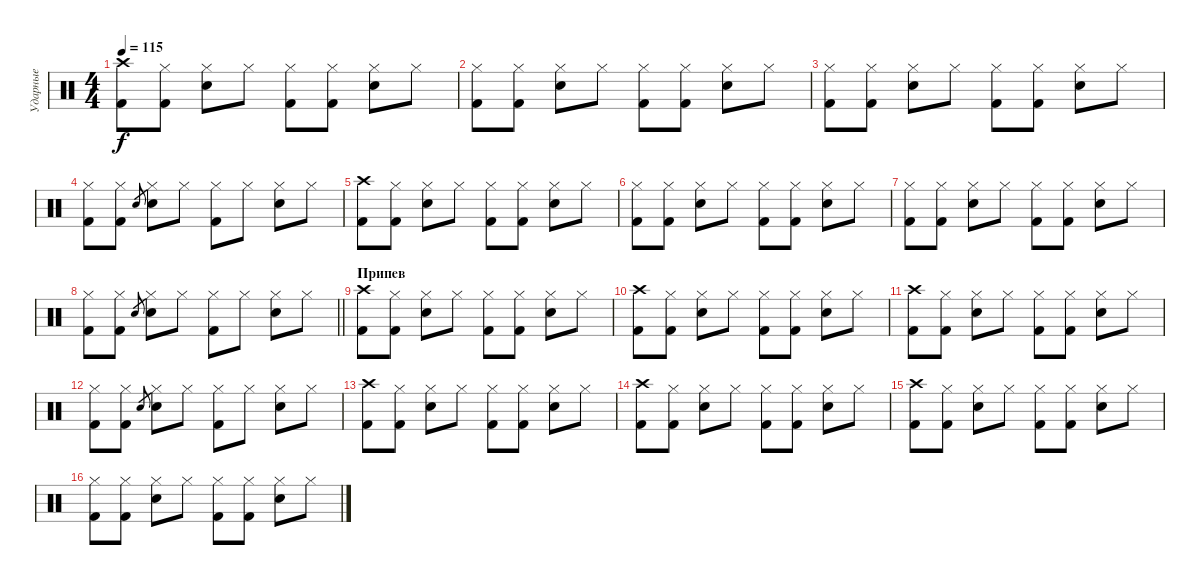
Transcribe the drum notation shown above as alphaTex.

\track ("Ударные" "Ударные") {instrument percussion}
\staff {score}
\articulation defaults
\ts (4 4)
\tempo 115
\clef neutral
\ks c
("Crash high (hit)" "Kick (hit) 2").8{dy f} ("Hi-Hat (closed)" "Kick (hit) 2").8 ("Hi-Hat (closed)" "Snare (hit) 2").8 "Hi-Hat (closed)".8 ("Hi-Hat (closed)" "Kick (hit) 2").8 ("Hi-Hat (closed)" "Kick (hit) 2").8 ("Hi-Hat (closed)" "Snare (hit) 2").8 "Hi-Hat (closed)".8 |
("Hi-Hat (closed)" "Kick (hit) 2").8 ("Hi-Hat (closed)" "Kick (hit) 2").8 ("Hi-Hat (closed)" "Snare (hit) 2").8 "Hi-Hat (closed)".8 ("Hi-Hat (closed)" "Kick (hit) 2").8 ("Hi-Hat (closed)" "Kick (hit) 2").8 ("Hi-Hat (closed)" "Snare (hit) 2").8 "Hi-Hat (closed)".8 |
("Hi-Hat (closed)" "Kick (hit) 2").8 ("Hi-Hat (closed)" "Kick (hit) 2").8 ("Hi-Hat (closed)" "Snare (hit) 2").8 "Hi-Hat (closed)".8 ("Hi-Hat (closed)" "Kick (hit) 2").8 ("Hi-Hat (closed)" "Kick (hit) 2").8 ("Hi-Hat (closed)" "Snare (hit) 2").8 "Hi-Hat (closed)".8 |
("Hi-Hat (closed)" "Kick (hit) 2").8 ("Hi-Hat (closed)" "Kick (hit) 2").8 "Snare (hit) 2".8{gr} ("Hi-Hat (closed)" "Snare (hit) 2").8 "Hi-Hat (closed)".8 ("Hi-Hat (closed)" "Kick (hit) 2").8 "Hi-Hat (closed)".8 ("Hi-Hat (closed)" "Snare (hit) 2").8 "Hi-Hat (closed)".8 |
("Crash high (hit)" "Kick (hit) 2").8 ("Hi-Hat (closed)" "Kick (hit) 2").8 ("Hi-Hat (closed)" "Snare (hit) 2").8 "Hi-Hat (closed)".8 ("Hi-Hat (closed)" "Kick (hit) 2").8 ("Hi-Hat (closed)" "Kick (hit) 2").8 ("Hi-Hat (closed)" "Snare (hit) 2").8 "Hi-Hat (closed)".8 |
("Hi-Hat (closed)" "Kick (hit) 2").8 ("Hi-Hat (closed)" "Kick (hit) 2").8 ("Hi-Hat (closed)" "Snare (hit) 2").8 "Hi-Hat (closed)".8 ("Hi-Hat (closed)" "Kick (hit) 2").8 ("Hi-Hat (closed)" "Kick (hit) 2").8 ("Hi-Hat (closed)" "Snare (hit) 2").8 "Hi-Hat (closed)".8 |
("Hi-Hat (closed)" "Kick (hit) 2").8 ("Hi-Hat (closed)" "Kick (hit) 2").8 ("Hi-Hat (closed)" "Snare (hit) 2").8 "Hi-Hat (closed)".8 ("Hi-Hat (closed)" "Kick (hit) 2").8 ("Hi-Hat (closed)" "Kick (hit) 2").8 ("Hi-Hat (closed)" "Snare (hit) 2").8 "Hi-Hat (closed)".8 |
\barLineRight lightlight
("Hi-Hat (closed)" "Kick (hit) 2").8 ("Hi-Hat (closed)" "Kick (hit) 2").8 "Snare (hit) 2".8{gr} ("Hi-Hat (closed)" "Snare (hit) 2").8 "Hi-Hat (closed)".8 ("Hi-Hat (closed)" "Kick (hit) 2").8 "Hi-Hat (closed)".8 ("Hi-Hat (closed)" "Snare (hit) 2").8 "Hi-Hat (closed)".8 |
\section ("" "Припев")
("Crash high (hit)" "Kick (hit) 2").8 ("Hi-Hat (closed)" "Kick (hit) 2").8 ("Hi-Hat (closed)" "Snare (hit) 2").8 "Hi-Hat (closed)".8 ("Hi-Hat (closed)" "Kick (hit) 2").8 ("Hi-Hat (closed)" "Kick (hit) 2").8 ("Hi-Hat (closed)" "Snare (hit) 2").8 "Hi-Hat (closed)".8 |
("Crash high (hit)" "Kick (hit) 2").8 ("Hi-Hat (closed)" "Kick (hit) 2").8 ("Hi-Hat (closed)" "Snare (hit) 2").8 "Hi-Hat (closed)".8 ("Hi-Hat (closed)" "Kick (hit) 2").8 ("Hi-Hat (closed)" "Kick (hit) 2").8 ("Hi-Hat (closed)" "Snare (hit) 2").8 "Hi-Hat (closed)".8 |
("Crash high (hit)" "Kick (hit) 2").8 ("Hi-Hat (closed)" "Kick (hit) 2").8 ("Hi-Hat (closed)" "Snare (hit) 2").8 "Hi-Hat (closed)".8 ("Hi-Hat (closed)" "Kick (hit) 2").8 ("Hi-Hat (closed)" "Kick (hit) 2").8 ("Hi-Hat (closed)" "Snare (hit) 2").8 "Hi-Hat (closed)".8 |
("Hi-Hat (closed)" "Kick (hit) 2").8 ("Hi-Hat (closed)" "Kick (hit) 2").8 "Snare (hit) 2".8{gr} ("Hi-Hat (closed)" "Snare (hit) 2").8 "Hi-Hat (closed)".8 ("Hi-Hat (closed)" "Kick (hit) 2").8 "Hi-Hat (closed)".8 ("Hi-Hat (closed)" "Snare (hit) 2").8 "Hi-Hat (closed)".8 |
("Crash high (hit)" "Kick (hit) 2").8 ("Hi-Hat (closed)" "Kick (hit) 2").8 ("Hi-Hat (closed)" "Snare (hit) 2").8 "Hi-Hat (closed)".8 ("Hi-Hat (closed)" "Kick (hit) 2").8 ("Hi-Hat (closed)" "Kick (hit) 2").8 ("Hi-Hat (closed)" "Snare (hit) 2").8 "Hi-Hat (closed)".8 |
("Crash high (hit)" "Kick (hit) 2").8 ("Hi-Hat (closed)" "Kick (hit) 2").8 ("Hi-Hat (closed)" "Snare (hit) 2").8 "Hi-Hat (closed)".8 ("Hi-Hat (closed)" "Kick (hit) 2").8 ("Hi-Hat (closed)" "Kick (hit) 2").8 ("Hi-Hat (closed)" "Snare (hit) 2").8 "Hi-Hat (closed)".8 |
("Crash high (hit)" "Kick (hit) 2").8 ("Hi-Hat (closed)" "Kick (hit) 2").8 ("Hi-Hat (closed)" "Snare (hit) 2").8 "Hi-Hat (closed)".8 ("Hi-Hat (closed)" "Kick (hit) 2").8 ("Hi-Hat (closed)" "Kick (hit) 2").8 ("Hi-Hat (closed)" "Snare (hit) 2").8 "Hi-Hat (closed)".8 |
("Hi-Hat (closed)" "Kick (hit) 2").8 ("Hi-Hat (closed)" "Kick (hit) 2").8 ("Hi-Hat (closed)" "Snare (hit) 2").8 "Hi-Hat (closed)".8 ("Hi-Hat (closed)" "Kick (hit) 2").8 ("Hi-Hat (closed)" "Kick (hit) 2").8 ("Hi-Hat (closed)" "Snare (hit) 2").8 "Hi-Hat (closed)".8
